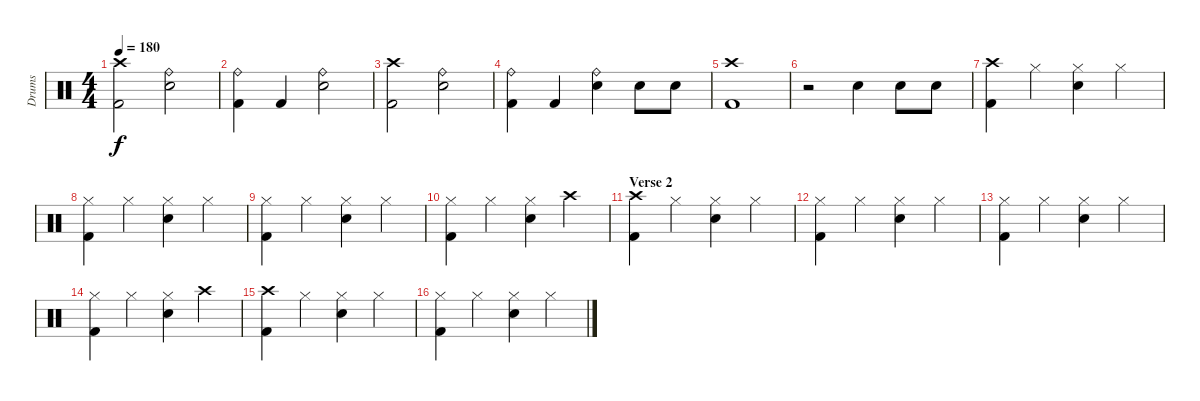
\track ("Drums" "Drums") {instrument percussion}
\staff {score}
\articulation defaults
\ts (4 4)
\tempo 180
\clef neutral
\ks c
("Crash high (hit)" "Kick (hit) 2").2{dy f} ("Ride (bell)" "Snare (hit) 2").2 |
("Ride (bell)" "Kick (hit) 2").4 "Kick (hit) 2".4 ("Ride (bell)" "Snare (hit) 2").2 |
("Crash high (hit)" "Kick (hit) 2").2 ("Ride (bell)" "Snare (hit) 2").2 |
("Ride (bell)" "Kick (hit) 2").4 "Kick (hit) 2".4 ("Ride (bell)" "Snare (hit) 2").4 "Snare (hit) 2".8 "Snare (hit) 2".8 |
("Crash high (hit)" "Kick (hit) 2").1 |
r.2 "Snare (hit) 2".4 "Snare (hit) 2".8 "Snare (hit) 2".8 |
("Crash high (hit)" "Kick (hit) 2").4 "Hi-Hat (closed)".4 ("Hi-Hat (closed)" "Snare (hit) 2").4 "Hi-Hat (closed)".4 |
("Hi-Hat (closed)" "Kick (hit) 2").4 "Hi-Hat (closed)".4 ("Hi-Hat (closed)" "Snare (hit) 2").4 "Hi-Hat (closed)".4 |
("Hi-Hat (closed)" "Kick (hit) 2").4 "Hi-Hat (closed)".4 ("Hi-Hat (closed)" "Snare (hit) 2").4 "Hi-Hat (closed)".4 |
("Hi-Hat (closed)" "Kick (hit) 2").4 "Hi-Hat (closed)".4 ("Hi-Hat (closed)" "Snare (hit) 2").4 "Crash high (hit)".4 |
\section ("" "Verse 2")
("Crash high (hit)" "Kick (hit) 2").4 "Hi-Hat (closed)".4 ("Hi-Hat (closed)" "Snare (hit) 2").4 "Hi-Hat (closed)".4 |
("Hi-Hat (closed)" "Kick (hit) 2").4 "Hi-Hat (closed)".4 ("Hi-Hat (closed)" "Snare (hit) 2").4 "Hi-Hat (closed)".4 |
("Hi-Hat (closed)" "Kick (hit) 2").4 "Hi-Hat (closed)".4 ("Hi-Hat (closed)" "Snare (hit) 2").4 "Hi-Hat (closed)".4 |
("Hi-Hat (closed)" "Kick (hit) 2").4 "Hi-Hat (closed)".4 ("Hi-Hat (closed)" "Snare (hit) 2").4 "Crash high (hit)".4 |
("Crash high (hit)" "Kick (hit) 2").4 "Hi-Hat (closed)".4 ("Hi-Hat (closed)" "Snare (hit) 2").4 "Hi-Hat (closed)".4 |
("Hi-Hat (closed)" "Kick (hit) 2").4 "Hi-Hat (closed)".4 ("Hi-Hat (closed)" "Snare (hit) 2").4 "Hi-Hat (closed)".4
